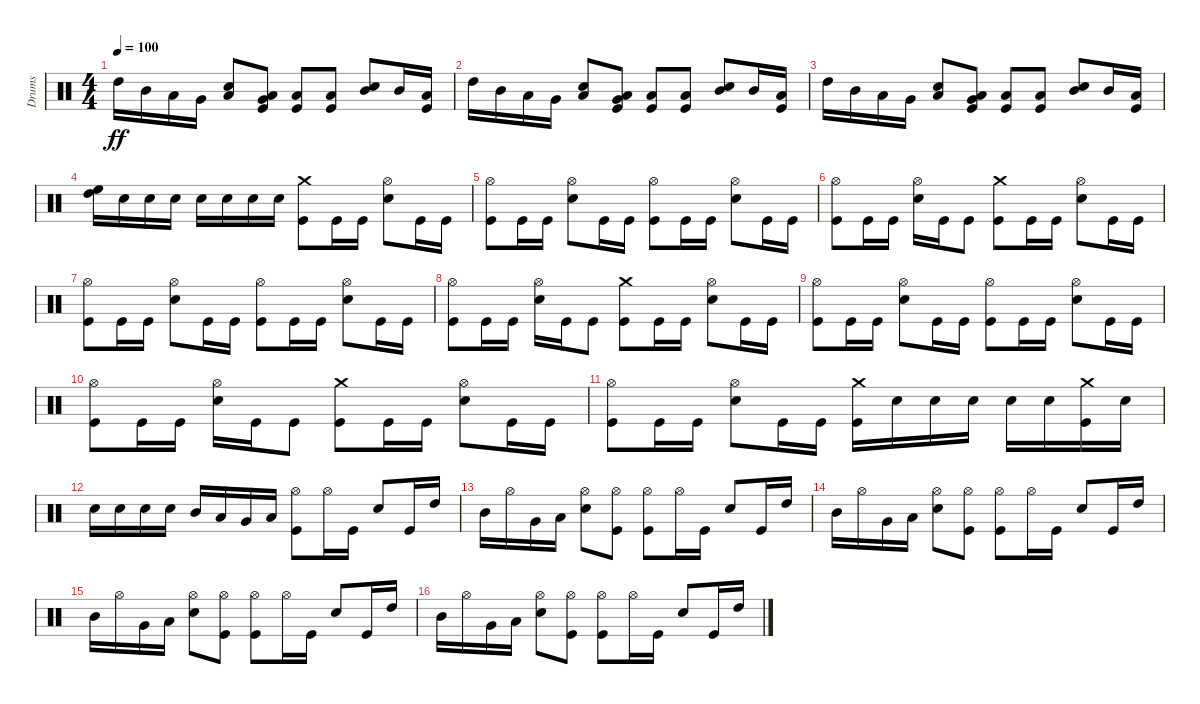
\track ("Drums" "Drums") {instrument percussion}
\staff {score}
\articulation defaults
\ts (4 4)
\tempo 100
\clef neutral
\ks c "High Tom (hit)".16{dy ff} "Mid Tom (hit)".16 "Low Tom (hit)".16 "Very Low Tom (hit)".16
("Electric Snare (hit)" "Low Tom (hit)").8 ("Kick (hit)" "Very Low Tom (hit)" "Low Tom (hit)").8 ("Kick (hit)" "Low Tom (hit)").8 ("Kick (hit)" "Low Tom (hit)").8 ("Electric Snare (hit)" "Mid Tom (hit)").8 "Mid Tom (hit)".16 ("Kick (hit)" "Low Tom (hit)").16 |
"High Tom (hit)".16 "Mid Tom (hit)".16 "Low Tom (hit)".16 "Very Low Tom (hit)".16 ("Electric Snare (hit)" "Low Tom (hit)").8 ("Kick (hit)" "Very Low Tom (hit)" "Low Tom (hit)").8 ("Kick (hit)" "Low Tom (hit)").8 ("Kick (hit)" "Low Tom (hit)").8 ("Electric Snare (hit)" "Mid Tom (hit)").8 "Mid Tom (hit)".16 ("Kick (hit)" "Low Tom (hit)").16 |
"High Tom (hit)".16 "Mid Tom (hit)".16 "Low Tom (hit)".16 "Very Low Tom (hit)".16 ("Electric Snare (hit)" "Low Tom (hit)").8 ("Kick (hit)" "Very Low Tom (hit)" "Low Tom (hit)").8 ("Kick (hit)" "Low Tom (hit)").8 ("Kick (hit)" "Low Tom (hit)").8 ("Electric Snare (hit)" "Mid Tom (hit)").8 "Mid Tom (hit)".16 ("Kick (hit)" "Low Tom (hit)").16 |
("High Tom (hit)" "High Floor Tom (hit)").16 "Electric Snare (hit)".16 "Electric Snare (hit)".16 "Electric Snare (hit)".16 "Electric Snare (hit)".16 "Electric Snare (hit)".16 "Electric Snare (hit)".16 "Electric Snare (hit)".16 ("Kick (hit)" "Crash medium (hit)").8 "Kick (hit)".16 "Kick (hit)".16 ("Electric Snare (hit)" "Hi-Hat (open)").8 "Kick (hit)".16 "Kick (hit)".16 |
("Kick (hit)" "Hi-Hat (open)").8 "Kick (hit)".16 "Kick (hit)".16 ("Electric Snare (hit)" "Hi-Hat (open)").8 "Kick (hit)".16 "Kick (hit)".16 ("Kick (hit)" "Hi-Hat (open)").8 "Kick (hit)".16 "Kick (hit)".16 ("Electric Snare (hit)" "Hi-Hat (open)").8 "Kick (hit)".16 "Kick (hit)".16 |
("Kick (hit)" "Hi-Hat (open)").8 "Kick (hit)".16 "Kick (hit)".16 ("Electric Snare (hit)" "Hi-Hat (open)").16 "Kick (hit)".16 "Kick (hit)".8 ("Kick (hit)" "Crash medium (hit)").8 "Kick (hit)".16 "Kick (hit)".16 ("Electric Snare (hit)" "Hi-Hat (open)").8 "Kick (hit)".16 "Kick (hit)".16 |
("Kick (hit)" "Hi-Hat (open)").8 "Kick (hit)".16 "Kick (hit)".16 ("Electric Snare (hit)" "Hi-Hat (open)").8 "Kick (hit)".16 "Kick (hit)".16 ("Kick (hit)" "Hi-Hat (open)").8 "Kick (hit)".16 "Kick (hit)".16 ("Electric Snare (hit)" "Hi-Hat (open)").8 "Kick (hit)".16 "Kick (hit)".16 |
("Kick (hit)" "Hi-Hat (open)").8 "Kick (hit)".16 "Kick (hit)".16 ("Electric Snare (hit)" "Hi-Hat (open)").16 "Kick (hit)".16 "Kick (hit)".8 ("Kick (hit)" "Crash medium (hit)").8 "Kick (hit)".16 "Kick (hit)".16 ("Electric Snare (hit)" "Hi-Hat (open)").8 "Kick (hit)".16 "Kick (hit)".16 |
("Kick (hit)" "Hi-Hat (open)").8 "Kick (hit)".16 "Kick (hit)".16 ("Electric Snare (hit)" "Hi-Hat (open)").8 "Kick (hit)".16 "Kick (hit)".16 ("Kick (hit)" "Hi-Hat (open)").8 "Kick (hit)".16 "Kick (hit)".16 ("Electric Snare (hit)" "Hi-Hat (open)").8 "Kick (hit)".16 "Kick (hit)".16 |
("Kick (hit)" "Hi-Hat (open)").8 "Kick (hit)".16 "Kick (hit)".16 ("Electric Snare (hit)" "Hi-Hat (open)").16 "Kick (hit)".16 "Kick (hit)".8 ("Kick (hit)" "Crash medium (hit)").8 "Kick (hit)".16 "Kick (hit)".16 ("Electric Snare (hit)" "Hi-Hat (open)").8 "Kick (hit)".16 "Kick (hit)".16 |
("Kick (hit)" "Hi-Hat (open)").8 "Kick (hit)".16 "Kick (hit)".16 ("Electric Snare (hit)" "Hi-Hat (open)").8 "Kick (hit)".16 "Kick (hit)".16 ("Kick (hit)" "Crash medium (hit)").16 "Electric Snare (hit)".16 "Electric Snare (hit)".16 "Electric Snare (hit)".16 "Electric Snare (hit)".16 "Electric Snare (hit)".16 ("Kick (hit)" "Crash medium (hit)").16 "Electric Snare (hit)".16 |
"Electric Snare (hit)".16 "Electric Snare (hit)".16 "Electric Snare (hit)".16 "Electric Snare (hit)".16 "Mid Tom (hit)".16 "Low Tom (hit)".16 "Very Low Tom (hit)".16 "Low Floor Tom (hit)".16 ("Kick (hit)" "Hi-Hat (open)").8 "Hi-Hat (open)".16 "Kick (hit)".16 "Electric Snare (hit)".8 "Kick (hit)".16 "High Tom (hit)".16 |
"Mid Tom (hit)".16 "Hi-Hat (open)".16 "Very Low Tom (hit)".16 "Low Floor Tom (hit)".16 ("Electric Snare (hit)" "Hi-Hat (open)").8 ("Kick (hit)" "Hi-Hat (open)").8 ("Kick (hit)" "Hi-Hat (open)").8 "Hi-Hat (open)".16 "Kick (hit)".16 "Electric Snare (hit)".8 "Kick (hit)".16 "High Tom (hit)".16 |
"Mid Tom (hit)".16 "Hi-Hat (open)".16 "Very Low Tom (hit)".16 "Low Floor Tom (hit)".16 ("Electric Snare (hit)" "Hi-Hat (open)").8 ("Kick (hit)" "Hi-Hat (open)").8 ("Kick (hit)" "Hi-Hat (open)").8 "Hi-Hat (open)".16 "Kick (hit)".16 "Electric Snare (hit)".8 "Kick (hit)".16 "High Tom (hit)".16 |
"Mid Tom (hit)".16 "Hi-Hat (open)".16 "Very Low Tom (hit)".16 "Low Floor Tom (hit)".16 ("Electric Snare (hit)" "Hi-Hat (open)").8 ("Kick (hit)" "Hi-Hat (open)").8 ("Kick (hit)" "Hi-Hat (open)").8 "Hi-Hat (open)".16 "Kick (hit)".16 "Electric Snare (hit)".8 "Kick (hit)".16 "High Tom (hit)".16 |
"Mid Tom (hit)".16 "Hi-Hat (open)".16 "Very Low Tom (hit)".16 "Low Floor Tom (hit)".16 ("Electric Snare (hit)" "Hi-Hat (open)").8 ("Kick (hit)" "Hi-Hat (open)").8 ("Kick (hit)" "Hi-Hat (open)").8 "Hi-Hat (open)".16 "Kick (hit)".16 "Electric Snare (hit)".8 "Kick (hit)".16 "High Tom (hit)".16
